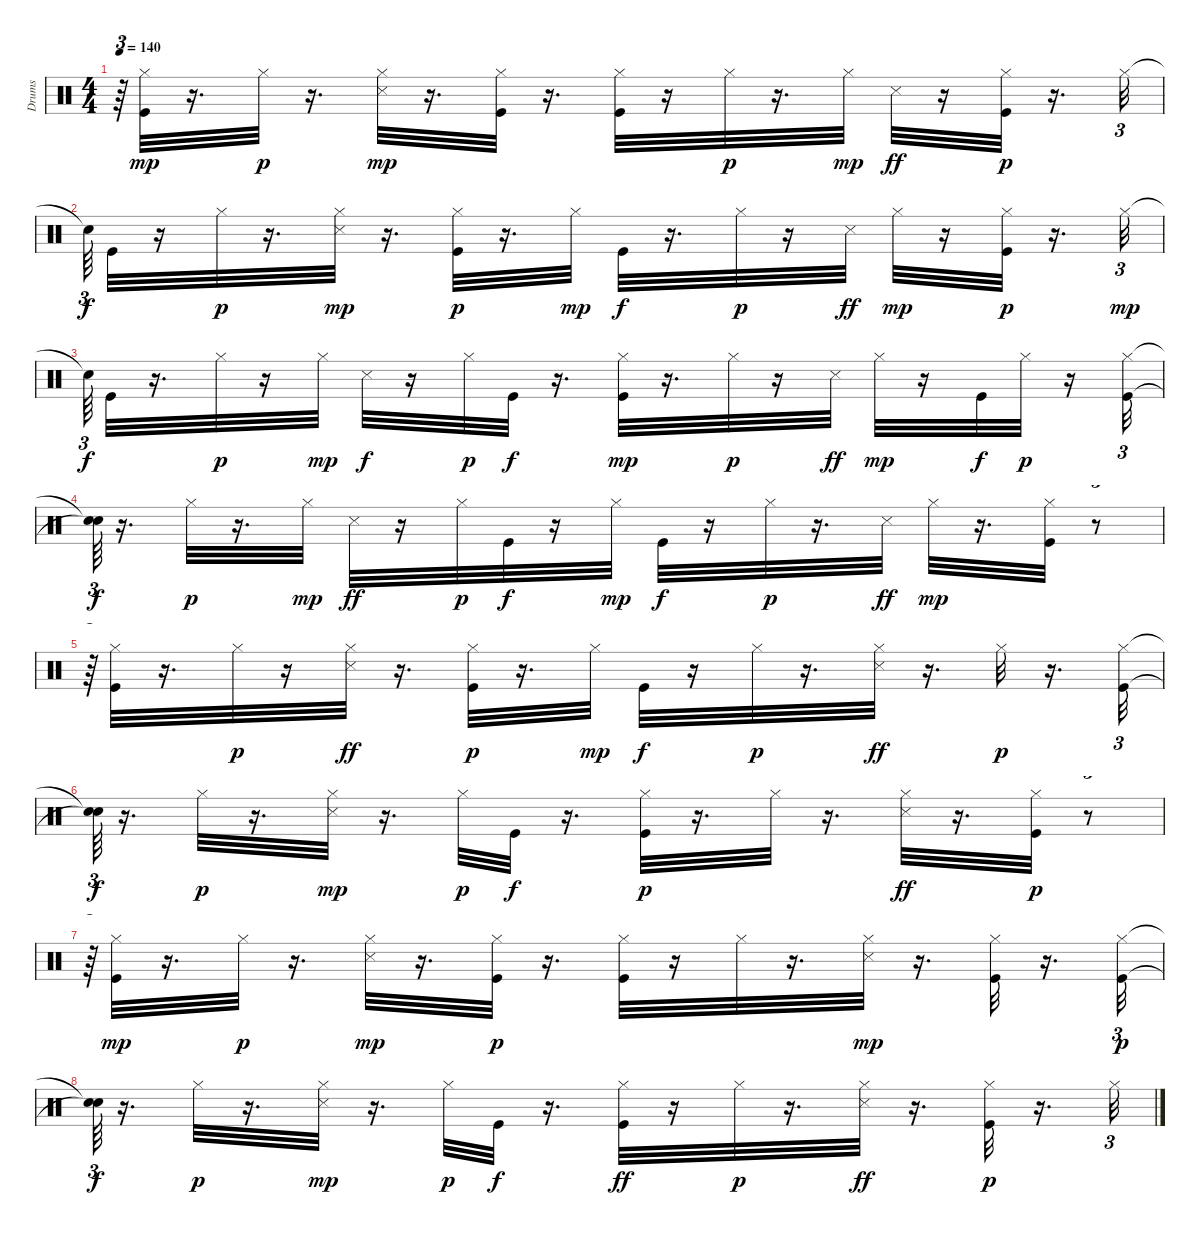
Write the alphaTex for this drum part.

\track ("Drums" "Drums") {instrument percussion}
\staff {score}
\articulation defaults
\ts (4 4)
\tempo 140
\clef neutral
\ks c
r.64{tu (3 2) dy p} ("Hi-Hat (closed)" "Kick (hit)").32{dy mp} r.16{d} "Hi-Hat (closed)".32{dy p} r.16{d} ("Hi-Hat (closed)" "Snare (side stick) 3").32{dy mp} r.16{d} ("Hi-Hat (closed)" "Kick (hit)").32 r.16{d} ("Hi-Hat (closed)" "Kick (hit)").32 r.16 "Hi-Hat (closed)".32{dy p} r.16{d} "Hi-Hat (closed)".32{dy mp} "Snare (side stick) 3".32{dy ff} r.16 ("Hi-Hat (closed)" "Kick (hit)").32{dy p} r.16{d} "Hi-Hat (closed)".32{tu (3 2)} |
"Snare (hit)"{t}.64{tu (3 2) dy f} "Kick (hit)".32 r.16 "Hi-Hat (closed)".32{dy p} r.16{d} ("Snare (side stick) 3" "Hi-Hat (closed)").32{dy mp} r.16{d} ("Kick (hit)" "Hi-Hat (closed)").32{dy p} r.16{d} "Hi-Hat (closed)".32{dy mp} "Kick (hit)".32{dy f} r.16{d} "Hi-Hat (closed)".32{dy p} r.16 "Snare (side stick) 3".32{dy ff} "Hi-Hat (closed)".32{dy mp} r.16 ("Kick (hit)" "Hi-Hat (closed)").32{dy p} r.16{d} "Hi-Hat (closed)".32{tu (3 2) dy mp} |
"Snare (hit)"{t}.64{tu (3 2) dy f} "Kick (hit)".32 r.16{d} "Hi-Hat (closed)".32{dy p} r.16 "Hi-Hat (closed)".32{dy mp} "Snare (side stick) 3".32{dy f} r.16 "Hi-Hat (closed)".32{dy p} "Kick (hit)".32{dy f} r.16{d} ("Hi-Hat (closed)" "Kick (hit)").32{dy mp} r.16{d} "Hi-Hat (closed)".32{dy p} r.16 "Snare (side stick) 3".32{dy ff} "Hi-Hat (closed)".32{dy mp} r.16 "Kick (hit)".32{dy f} "Hi-Hat (closed)".32{dy p} r.16 ("Hi-Hat (closed)" "Kick (hit)").32{tu (3 2)} |
("Snare (hit)"{t} "Snare (hit)"{t}).64{tu (3 2) dy f} r.16{d} "Hi-Hat (closed)".32{dy p} r.16{d} "Hi-Hat (closed)".32{dy mp} "Snare (side stick) 3".32{dy ff} r.16 "Hi-Hat (closed)".32{dy p} "Kick (hit)".32{dy f} r.16 "Hi-Hat (closed)".32{dy mp} "Kick (hit)".32{dy f} r.16 "Hi-Hat (closed)".32{dy p} r.16{d} "Snare (side stick) 3".32{dy ff} "Hi-Hat (closed)".32{dy mp} r.16{d} ("Hi-Hat (closed)" "Kick (hit)").32 r.8{tu (3 2)} |
r.64{tu (3 2)} ("Kick (hit)" "Hi-Hat (closed)").32 r.16{d} "Hi-Hat (closed)".32{dy p} r.16 ("Hi-Hat (closed)" "Snare (side stick) 3").32{dy ff} r.16{d} ("Kick (hit)" "Hi-Hat (closed)").32{dy p} r.16{d} "Hi-Hat (closed)".32{dy mp} "Kick (hit)".32{dy f} r.16 "Hi-Hat (closed)".32{dy p} r.16{d} ("Hi-Hat (closed)" "Snare (side stick) 3").32{dy ff} r.16{d} "Hi-Hat (closed)".32{dy p} r.16{d} ("Hi-Hat (closed)" "Kick (hit)").32{tu (3 2)} |
("Snare (hit)"{t} "Snare (hit)"{t}).64{tu (3 2) dy f} r.16{d} "Hi-Hat (closed)".32{dy p} r.16{d} ("Snare (side stick) 3" "Hi-Hat (closed)").32{dy mp} r.16{d} "Hi-Hat (closed)".32{dy p} "Kick (hit)".32{dy f} r.16{d} ("Hi-Hat (closed)" "Kick (hit)").32{dy p} r.16{d} "Hi-Hat (closed)".32 r.16{d} ("Hi-Hat (closed)" "Snare (side stick) 3").32{dy ff} r.16{d} ("Hi-Hat (closed)" "Kick (hit)").32{dy p} r.8{tu (3 2)} |
r.64{tu (3 2)} ("Hi-Hat (closed)" "Kick (hit)").32{dy mp} r.16{d} "Hi-Hat (closed)".32{dy p} r.16{d} ("Hi-Hat (closed)" "Snare (side stick) 3").32{dy mp} r.16{d} ("Hi-Hat (closed)" "Kick (hit)").32{dy p} r.16{d} ("Hi-Hat (closed)" "Kick (hit)").32 r.16 "Hi-Hat (closed)".32 r.16{d} ("Snare (side stick) 3" "Hi-Hat (closed)").32{dy mp} r.16{d} ("Kick (hit)" "Hi-Hat (closed)").32 r.16{d} ("Kick (hit)" "Hi-Hat (closed)").32{tu (3 2) dy p} |
("Snare (hit)"{t} "Snare (hit)"{t}).64{tu (3 2) dy f} r.16{d} "Hi-Hat (closed)".32{dy p} r.16{d} ("Snare (side stick) 3" "Hi-Hat (closed)").32{dy mp} r.16{d} "Hi-Hat (closed)".32{dy p} "Kick (hit)".32{dy f} r.16{d} ("Hi-Hat (closed)" "Kick (hit)").32{dy ff} r.16 "Hi-Hat (closed)".32{dy p} r.16{d} ("Hi-Hat (closed)" "Snare (side stick) 3").32{dy ff} r.16{d} ("Hi-Hat (closed)" "Kick (hit)").32{dy p} r.16{d} "Hi-Hat (closed)".32{tu (3 2)}
